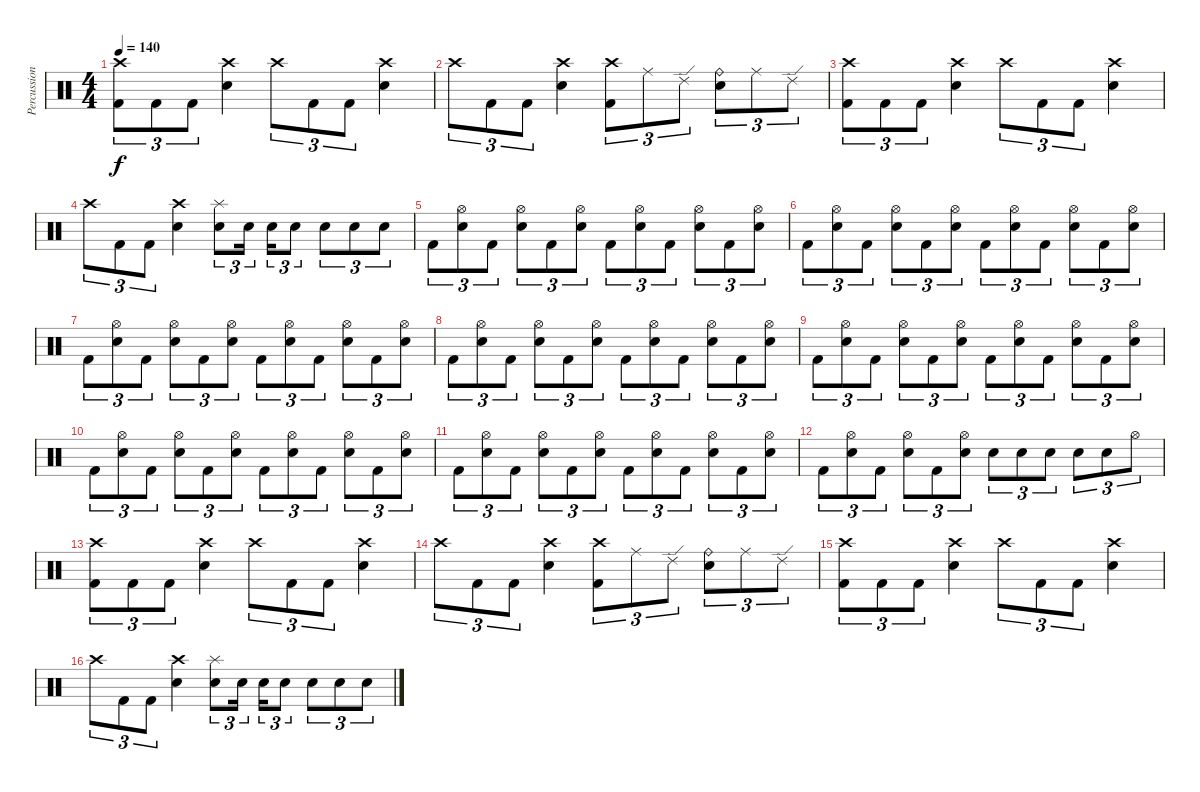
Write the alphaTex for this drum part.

\track ("Percussion" "Percussion") {instrument percussion}
\staff {score}
\articulation defaults
\ts (4 4)
\tempo 140
\clef neutral
\ks c
("Crash high (hit)" "Kick (hit) 2").8{tu (3 2) dy f} "Kick (hit) 2".8{tu (3 2)} "Kick (hit) 2".8{tu (3 2)} ("Crash high (hit)" "Snare (hit) 2").4 "Crash high (hit)".8{tu (3 2)} "Kick (hit) 2".8{tu (3 2)} "Kick (hit) 2".8{tu (3 2)} ("Crash high (hit)" "Snare (hit) 2").4 |
"Crash high (hit)".8{tu (3 2)} "Kick (hit) 2".8{tu (3 2)} "Kick (hit) 2".8{tu (3 2)} ("Crash high (hit)" "Snare (hit) 2").4 ("Crash high (hit)" "Kick (hit) 2").8{tu (3 2)} "Ride (middle)".8{tu (3 2)} "Ride (edge) 2".8{tu (3 2)} ("Ride (bell)" "Snare (hit) 2").8{tu (3 2)} "Ride (middle)".8{tu (3 2)} "Ride (edge) 2".8{tu (3 2)} |
("Crash high (hit)" "Kick (hit) 2").8{tu (3 2)} "Kick (hit) 2".8{tu (3 2)} "Kick (hit) 2".8{tu (3 2)} ("Crash high (hit)" "Snare (hit) 2").4 "Crash high (hit)".8{tu (3 2)} "Kick (hit) 2".8{tu (3 2)} "Kick (hit) 2".8{tu (3 2)} ("Crash high (hit)" "Snare (hit) 2").4 |
"Crash high (hit)".8{tu (3 2)} "Kick (hit) 2".8{tu (3 2)} "Kick (hit) 2".8{tu (3 2)} ("Crash high (hit)" "Snare (hit) 2").4 ("Splash (hit)" "Snare (hit) 2").8{tu (3 2)} "Snare (hit) 2".16{tu (3 2) beam splitsecondary} "Snare (hit) 2".16{tu (3 2)} "Snare (hit) 2".8{tu (3 2)} "Snare (hit) 2".8{tu (3 2)} "Snare (hit) 2".8{tu (3 2)} "Snare (hit) 2".8{tu (3 2)} |
"Kick (hit) 2".8{tu (3 2)} ("Hi-Hat (open)" "Snare (hit) 2").8{tu (3 2)} "Kick (hit) 2".8{tu (3 2)} ("Hi-Hat (open)" "Snare (hit) 2").8{tu (3 2)} "Kick (hit) 2".8{tu (3 2)} ("Hi-Hat (open)" "Snare (hit) 2").8{tu (3 2)} "Kick (hit) 2".8{tu (3 2)} ("Hi-Hat (open)" "Snare (hit) 2").8{tu (3 2)} "Kick (hit) 2".8{tu (3 2)} ("Hi-Hat (open)" "Snare (hit) 2").8{tu (3 2)} "Kick (hit) 2".8{tu (3 2)} ("Hi-Hat (open)" "Snare (hit) 2").8{tu (3 2)} |
"Kick (hit) 2".8{tu (3 2)} ("Hi-Hat (open)" "Snare (hit) 2").8{tu (3 2)} "Kick (hit) 2".8{tu (3 2)} ("Hi-Hat (open)" "Snare (hit) 2").8{tu (3 2)} "Kick (hit) 2".8{tu (3 2)} ("Hi-Hat (open)" "Snare (hit) 2").8{tu (3 2)} "Kick (hit) 2".8{tu (3 2)} ("Hi-Hat (open)" "Snare (hit) 2").8{tu (3 2)} "Kick (hit) 2".8{tu (3 2)} ("Hi-Hat (open)" "Snare (hit) 2").8{tu (3 2)} "Kick (hit) 2".8{tu (3 2)} ("Hi-Hat (open)" "Snare (hit) 2").8{tu (3 2)} |
"Kick (hit) 2".8{tu (3 2)} ("Hi-Hat (open)" "Snare (hit) 2").8{tu (3 2)} "Kick (hit) 2".8{tu (3 2)} ("Hi-Hat (open)" "Snare (hit) 2").8{tu (3 2)} "Kick (hit) 2".8{tu (3 2)} ("Hi-Hat (open)" "Snare (hit) 2").8{tu (3 2)} "Kick (hit) 2".8{tu (3 2)} ("Hi-Hat (open)" "Snare (hit) 2").8{tu (3 2)} "Kick (hit) 2".8{tu (3 2)} ("Hi-Hat (open)" "Snare (hit) 2").8{tu (3 2)} "Kick (hit) 2".8{tu (3 2)} ("Hi-Hat (open)" "Snare (hit) 2").8{tu (3 2)} |
"Kick (hit) 2".8{tu (3 2)} ("Hi-Hat (open)" "Snare (hit) 2").8{tu (3 2)} "Kick (hit) 2".8{tu (3 2)} ("Hi-Hat (open)" "Snare (hit) 2").8{tu (3 2)} "Kick (hit) 2".8{tu (3 2)} ("Hi-Hat (open)" "Snare (hit) 2").8{tu (3 2)} "Kick (hit) 2".8{tu (3 2)} ("Hi-Hat (open)" "Snare (hit) 2").8{tu (3 2)} "Kick (hit) 2".8{tu (3 2)} ("Hi-Hat (open)" "Snare (hit) 2").8{tu (3 2)} "Kick (hit) 2".8{tu (3 2)} ("Hi-Hat (open)" "Snare (hit) 2").8{tu (3 2)} |
"Kick (hit) 2".8{tu (3 2)} ("Hi-Hat (open)" "Snare (hit) 2").8{tu (3 2)} "Kick (hit) 2".8{tu (3 2)} ("Hi-Hat (open)" "Snare (hit) 2").8{tu (3 2)} "Kick (hit) 2".8{tu (3 2)} ("Hi-Hat (open)" "Snare (hit) 2").8{tu (3 2)} "Kick (hit) 2".8{tu (3 2)} ("Hi-Hat (open)" "Snare (hit) 2").8{tu (3 2)} "Kick (hit) 2".8{tu (3 2)} ("Hi-Hat (open)" "Snare (hit) 2").8{tu (3 2)} "Kick (hit) 2".8{tu (3 2)} ("Hi-Hat (open)" "Snare (hit) 2").8{tu (3 2)} |
"Kick (hit) 2".8{tu (3 2)} ("Hi-Hat (open)" "Snare (hit) 2").8{tu (3 2)} "Kick (hit) 2".8{tu (3 2)} ("Hi-Hat (open)" "Snare (hit) 2").8{tu (3 2)} "Kick (hit) 2".8{tu (3 2)} ("Hi-Hat (open)" "Snare (hit) 2").8{tu (3 2)} "Kick (hit) 2".8{tu (3 2)} ("Hi-Hat (open)" "Snare (hit) 2").8{tu (3 2)} "Kick (hit) 2".8{tu (3 2)} ("Hi-Hat (open)" "Snare (hit) 2").8{tu (3 2)} "Kick (hit) 2".8{tu (3 2)} ("Hi-Hat (open)" "Snare (hit) 2").8{tu (3 2)} |
"Kick (hit) 2".8{tu (3 2)} ("Hi-Hat (open)" "Snare (hit) 2").8{tu (3 2)} "Kick (hit) 2".8{tu (3 2)} ("Hi-Hat (open)" "Snare (hit) 2").8{tu (3 2)} "Kick (hit) 2".8{tu (3 2)} ("Hi-Hat (open)" "Snare (hit) 2").8{tu (3 2)} "Kick (hit) 2".8{tu (3 2)} ("Hi-Hat (open)" "Snare (hit) 2").8{tu (3 2)} "Kick (hit) 2".8{tu (3 2)} ("Hi-Hat (open)" "Snare (hit) 2").8{tu (3 2)} "Kick (hit) 2".8{tu (3 2)} ("Hi-Hat (open)" "Snare (hit) 2").8{tu (3 2)} |
"Kick (hit) 2".8{tu (3 2)} ("Hi-Hat (open)" "Snare (hit) 2").8{tu (3 2)} "Kick (hit) 2".8{tu (3 2)} ("Hi-Hat (open)" "Snare (hit) 2").8{tu (3 2)} "Kick (hit) 2".8{tu (3 2)} ("Hi-Hat (open)" "Snare (hit) 2").8{tu (3 2)} "Snare (hit) 2".8{tu (3 2)} "Snare (hit) 2".8{tu (3 2)} "Snare (hit) 2".8{tu (3 2)} "Snare (hit) 2".8{tu (3 2)} "Snare (hit) 2".8{tu (3 2)} "Hi-Hat (open)".8{tu (3 2)} |
("Crash high (hit)" "Kick (hit) 2").8{tu (3 2)} "Kick (hit) 2".8{tu (3 2)} "Kick (hit) 2".8{tu (3 2)} ("Crash high (hit)" "Snare (hit) 2").4 "Crash high (hit)".8{tu (3 2)} "Kick (hit) 2".8{tu (3 2)} "Kick (hit) 2".8{tu (3 2)} ("Crash high (hit)" "Snare (hit) 2").4 |
"Crash high (hit)".8{tu (3 2)} "Kick (hit) 2".8{tu (3 2)} "Kick (hit) 2".8{tu (3 2)} ("Crash high (hit)" "Snare (hit) 2").4 ("Crash high (hit)" "Kick (hit) 2").8{tu (3 2)} "Ride (middle)".8{tu (3 2)} "Ride (edge) 2".8{tu (3 2)} ("Ride (bell)" "Snare (hit) 2").8{tu (3 2)} "Ride (middle)".8{tu (3 2)} "Ride (edge) 2".8{tu (3 2)} |
("Crash high (hit)" "Kick (hit) 2").8{tu (3 2)} "Kick (hit) 2".8{tu (3 2)} "Kick (hit) 2".8{tu (3 2)} ("Crash high (hit)" "Snare (hit) 2").4 "Crash high (hit)".8{tu (3 2)} "Kick (hit) 2".8{tu (3 2)} "Kick (hit) 2".8{tu (3 2)} ("Crash high (hit)" "Snare (hit) 2").4 |
"Crash high (hit)".8{tu (3 2)} "Kick (hit) 2".8{tu (3 2)} "Kick (hit) 2".8{tu (3 2)} ("Crash high (hit)" "Snare (hit) 2").4 ("Splash (hit)" "Snare (hit) 2").8{tu (3 2)} "Snare (hit) 2".16{tu (3 2) beam splitsecondary} "Snare (hit) 2".16{tu (3 2)} "Snare (hit) 2".8{tu (3 2)} "Snare (hit) 2".8{tu (3 2)} "Snare (hit) 2".8{tu (3 2)} "Snare (hit) 2".8{tu (3 2)}
